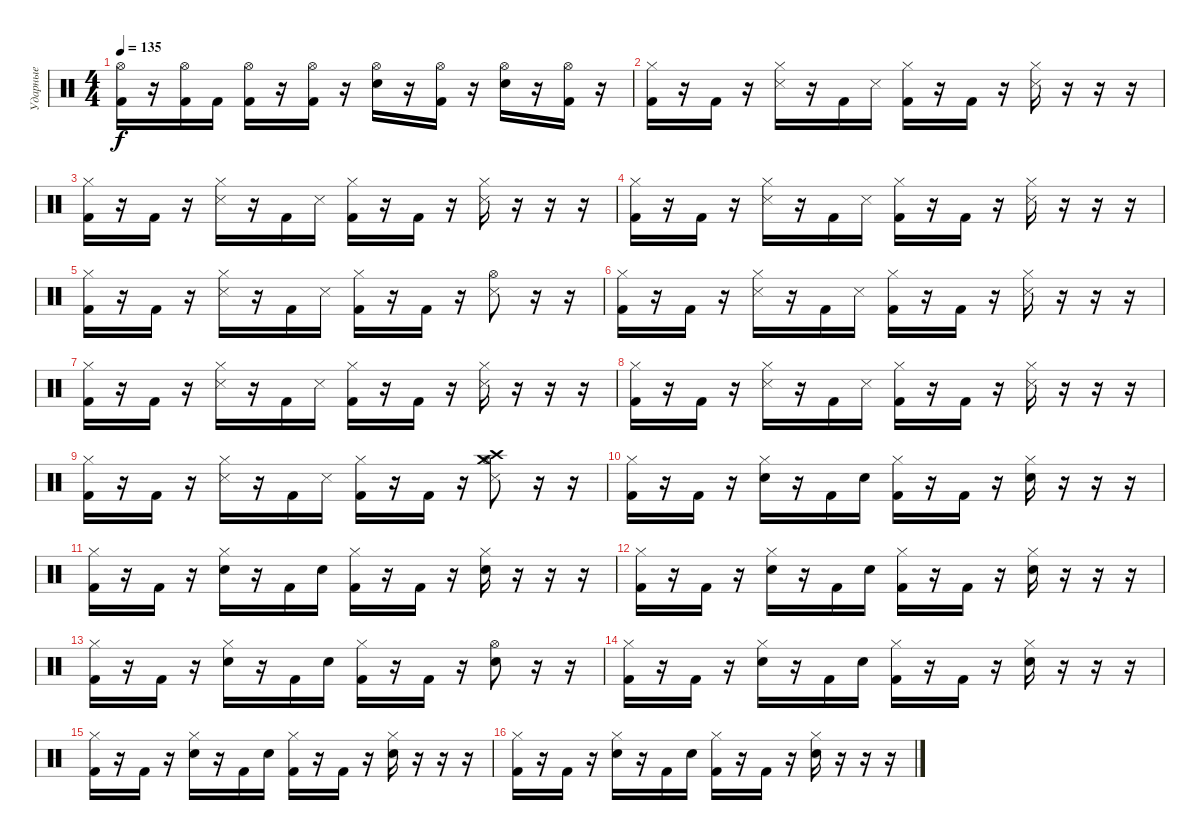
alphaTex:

\track ("Ударные" "Ударные") {instrument percussion}
\staff {score}
\articulation defaults
\ts (4 4)
\tempo 135
\clef neutral
\ks c
("Hi-Hat (open)" "Kick (hit) 2").16{dy f} r.16 ("Hi-Hat (open)" "Kick (hit) 2").16 "Kick (hit) 2".16 ("Kick (hit) 2" "Hi-Hat (open)").16 r.16 ("Kick (hit) 2" "Hi-Hat (open)").16 r.16 ("Electric Snare (hit)" "Hi-Hat (open)").16 r.16 ("Kick (hit) 2" "Hi-Hat (open)").16 r.16 ("Electric Snare (hit)" "Hi-Hat (open)").16 r.16 ("Kick (hit) 2" "Hi-Hat (open)").16 r.16 |
("Kick (hit) 2" "Hi-Hat (closed)").16 r.16 "Kick (hit) 2".16 r.16 ("Snare (side stick) 3" "Hi-Hat (closed)").16 r.16 "Kick (hit) 2".16 "Snare (side stick) 3".16 ("Kick (hit) 2" "Hi-Hat (closed)").16 r.16 "Kick (hit) 2".16 r.16 ("Snare (side stick) 3" "Hi-Hat (closed)").16 r.16 r.16 r.16 |
("Kick (hit) 2" "Hi-Hat (closed)").16 r.16 "Kick (hit) 2".16 r.16 ("Snare (side stick) 3" "Hi-Hat (closed)").16 r.16 "Kick (hit) 2".16 "Snare (side stick) 3".16 ("Kick (hit) 2" "Hi-Hat (closed)").16 r.16 "Kick (hit) 2".16 r.16 ("Snare (side stick) 3" "Hi-Hat (closed)").16 r.16 r.16 r.16 |
("Kick (hit) 2" "Hi-Hat (closed)").16 r.16 "Kick (hit) 2".16 r.16 ("Snare (side stick) 3" "Hi-Hat (closed)").16 r.16 "Kick (hit) 2".16 "Snare (side stick) 3".16 ("Kick (hit) 2" "Hi-Hat (closed)").16 r.16 "Kick (hit) 2".16 r.16 ("Snare (side stick) 3" "Hi-Hat (closed)").16 r.16 r.16 r.16 |
("Kick (hit) 2" "Hi-Hat (closed)").16 r.16 "Kick (hit) 2".16 r.16 ("Snare (side stick) 3" "Hi-Hat (closed)").16 r.16 "Kick (hit) 2".16 "Snare (side stick) 3".16 ("Kick (hit) 2" "Hi-Hat (closed)").16 r.16 "Kick (hit) 2".16 r.16 ("Snare (side stick) 3" "Hi-Hat (open)").8 r.16 r.16 |
("Kick (hit) 2" "Hi-Hat (closed)").16 r.16 "Kick (hit) 2".16 r.16 ("Snare (side stick) 3" "Hi-Hat (closed)").16 r.16 "Kick (hit) 2".16 "Snare (side stick) 3".16 ("Kick (hit) 2" "Hi-Hat (closed)").16 r.16 "Kick (hit) 2".16 r.16 ("Snare (side stick) 3" "Hi-Hat (closed)").16 r.16 r.16 r.16 |
("Kick (hit) 2" "Hi-Hat (closed)").16 r.16 "Kick (hit) 2".16 r.16 ("Snare (side stick) 3" "Hi-Hat (closed)").16 r.16 "Kick (hit) 2".16 "Snare (side stick) 3".16 ("Kick (hit) 2" "Hi-Hat (closed)").16 r.16 "Kick (hit) 2".16 r.16 ("Snare (side stick) 3" "Hi-Hat (closed)").16 r.16 r.16 r.16 |
("Kick (hit) 2" "Hi-Hat (closed)").16 r.16 "Kick (hit) 2".16 r.16 ("Snare (side stick) 3" "Hi-Hat (closed)").16 r.16 "Kick (hit) 2".16 "Snare (side stick) 3".16 ("Kick (hit) 2" "Hi-Hat (closed)").16 r.16 "Kick (hit) 2".16 r.16 ("Snare (side stick) 3" "Hi-Hat (closed)").16 r.16 r.16 r.16 |
("Kick (hit) 2" "Hi-Hat (closed)").16 r.16 "Kick (hit) 2".16 r.16 ("Snare (side stick) 3" "Hi-Hat (closed)").16 r.16 "Kick (hit) 2".16 "Snare (side stick) 3".16 ("Kick (hit) 2" "Hi-Hat (closed)").16 r.16 "Kick (hit) 2".16 r.16 ("Snare (side stick) 3" "Hi-Hat (open)" "Crash high (hit)" "Crash medium (hit)").8 r.16 r.16 |
("Kick (hit) 2" "Hi-Hat (closed)").16 r.16 "Kick (hit) 2".16 r.16 ("Electric Snare (hit)" "Hi-Hat (closed)").16 r.16 "Kick (hit) 2".16 "Electric Snare (hit)".16 ("Kick (hit) 2" "Hi-Hat (closed)").16 r.16 "Kick (hit) 2".16 r.16 ("Electric Snare (hit)" "Hi-Hat (closed)").16 r.16 r.16 r.16 |
("Kick (hit) 2" "Hi-Hat (closed)").16 r.16 "Kick (hit) 2".16 r.16 ("Electric Snare (hit)" "Hi-Hat (closed)").16 r.16 "Kick (hit) 2".16 "Electric Snare (hit)".16 ("Kick (hit) 2" "Hi-Hat (closed)").16 r.16 "Kick (hit) 2".16 r.16 ("Electric Snare (hit)" "Hi-Hat (closed)").16 r.16 r.16 r.16 |
("Kick (hit) 2" "Hi-Hat (closed)").16 r.16 "Kick (hit) 2".16 r.16 ("Electric Snare (hit)" "Hi-Hat (closed)").16 r.16 "Kick (hit) 2".16 "Electric Snare (hit)".16 ("Kick (hit) 2" "Hi-Hat (closed)").16 r.16 "Kick (hit) 2".16 r.16 ("Electric Snare (hit)" "Hi-Hat (closed)").16 r.16 r.16 r.16 |
("Kick (hit) 2" "Hi-Hat (closed)").16 r.16 "Kick (hit) 2".16 r.16 ("Electric Snare (hit)" "Hi-Hat (closed)").16 r.16 "Kick (hit) 2".16 "Electric Snare (hit)".16 ("Kick (hit) 2" "Hi-Hat (closed)").16 r.16 "Kick (hit) 2".16 r.16 ("Electric Snare (hit)" "Hi-Hat (open)").8 r.16 r.16 |
("Kick (hit) 2" "Hi-Hat (closed)").16 r.16 "Kick (hit) 2".16 r.16 ("Electric Snare (hit)" "Hi-Hat (closed)").16 r.16 "Kick (hit) 2".16 "Electric Snare (hit)".16 ("Kick (hit) 2" "Hi-Hat (closed)").16 r.16 "Kick (hit) 2".16 r.16 ("Electric Snare (hit)" "Hi-Hat (closed)").16 r.16 r.16 r.16 |
("Kick (hit) 2" "Hi-Hat (closed)").16 r.16 "Kick (hit) 2".16 r.16 ("Electric Snare (hit)" "Hi-Hat (closed)").16 r.16 "Kick (hit) 2".16 "Electric Snare (hit)".16 ("Kick (hit) 2" "Hi-Hat (closed)").16 r.16 "Kick (hit) 2".16 r.16 ("Electric Snare (hit)" "Hi-Hat (closed)").16 r.16 r.16 r.16 |
("Kick (hit) 2" "Hi-Hat (closed)").16 r.16 "Kick (hit) 2".16 r.16 ("Electric Snare (hit)" "Hi-Hat (closed)").16 r.16 "Kick (hit) 2".16 "Electric Snare (hit)".16 ("Kick (hit) 2" "Hi-Hat (closed)").16 r.16 "Kick (hit) 2".16 r.16 ("Electric Snare (hit)" "Hi-Hat (closed)").16 r.16 r.16 r.16
